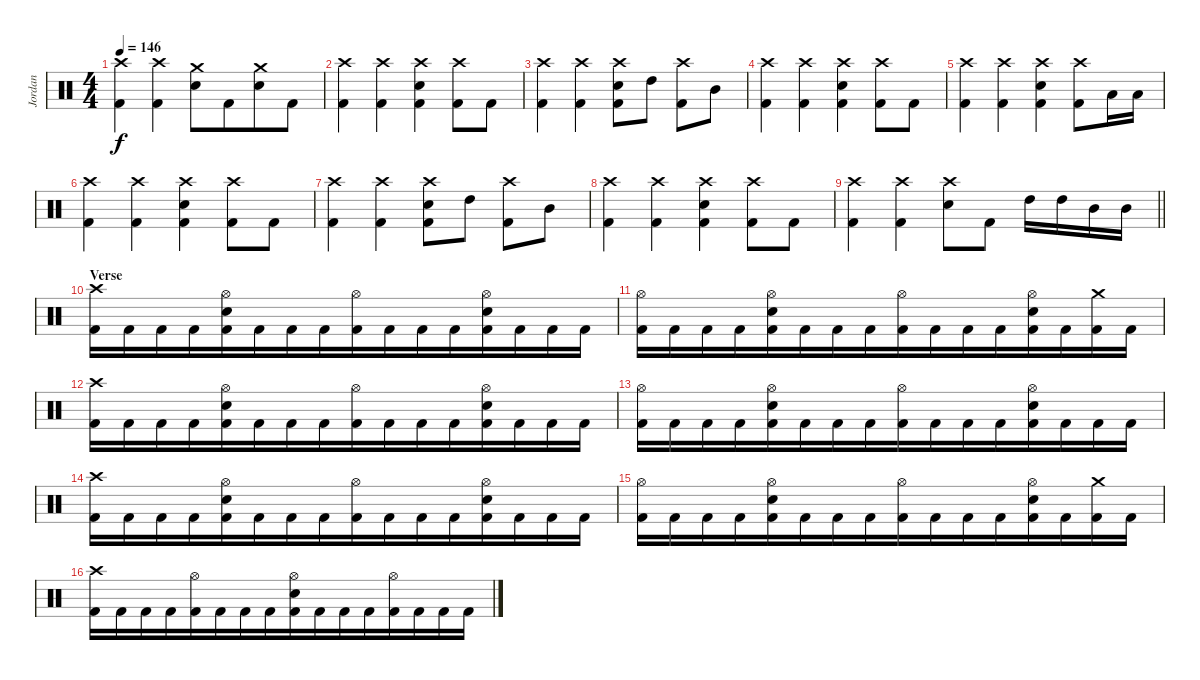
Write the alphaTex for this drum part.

\track ("Jordan" "Jordan") {instrument percussion}
\staff {score}
\articulation defaults
\ts (4 4)
\tempo 146
\clef neutral
\ks c
("Crash high (hit)" "Kick (hit) 2").4{dy f} ("Crash high (hit)" "Kick (hit) 2").4{beam merge} ("Crash medium (hit)" "Snare (hit) 2").8{beam merge} "Kick (hit) 2".8{beam merge} ("Crash medium (hit)" "Snare (hit) 2").8{beam merge} "Kick (hit) 2".8 |
("Crash high (hit)" "Kick (hit) 2").4 ("Crash high (hit)" "Kick (hit) 2").4{beam merge} ("Crash high (hit)" "Snare (hit) 2" "Kick (hit) 2").4 ("Crash high (hit)" "Kick (hit) 2").8{beam merge} "Kick (hit) 2".8 |
("Crash high (hit)" "Kick (hit) 2").4 ("Crash high (hit)" "Kick (hit) 2").4{beam merge} ("Crash high (hit)" "Snare (hit) 2" "Kick (hit) 2").8 "High Tom (hit)".8 ("Crash high (hit)" "Kick (hit) 2").8{beam merge} "Mid Tom (hit)".8 |
("Crash high (hit)" "Kick (hit) 2").4 ("Crash high (hit)" "Kick (hit) 2").4{beam merge} ("Crash high (hit)" "Snare (hit) 2" "Kick (hit) 2").4 ("Crash high (hit)" "Kick (hit) 2").8{beam merge} "Kick (hit) 2".8 |
("Crash high (hit)" "Kick (hit) 2").4 ("Crash high (hit)" "Kick (hit) 2").4{beam merge} ("Crash high (hit)" "Snare (hit) 2" "Kick (hit) 2").4 ("Crash high (hit)" "Kick (hit) 2").8 "Low Tom (hit)".16 "Low Tom (hit)".16 |
("Crash high (hit)" "Kick (hit) 2").4 ("Crash high (hit)" "Kick (hit) 2").4{beam merge} ("Crash high (hit)" "Snare (hit) 2" "Kick (hit) 2").4 ("Crash high (hit)" "Kick (hit) 2").8{beam merge} "Kick (hit) 2".8 |
("Crash high (hit)" "Kick (hit) 2").4 ("Crash high (hit)" "Kick (hit) 2").4{beam merge} ("Crash high (hit)" "Snare (hit) 2" "Kick (hit) 2").8 "High Tom (hit)".8 ("Crash high (hit)" "Kick (hit) 2").8{beam merge} "Mid Tom (hit)".8 |
("Crash high (hit)" "Kick (hit) 2").4 ("Crash high (hit)" "Kick (hit) 2").4{beam merge} ("Crash high (hit)" "Snare (hit) 2" "Kick (hit) 2").4 ("Crash high (hit)" "Kick (hit) 2").8{beam merge} "Kick (hit) 2".8 |
\barLineRight lightlight
("Crash high (hit)" "Kick (hit) 2").4 ("Crash high (hit)" "Kick (hit) 2").4{beam merge} ("Crash high (hit)" "Snare (hit) 2").8{beam merge} "Kick (hit) 2".8 "High Tom (hit)".16 "High Tom (hit)".16 "Mid Tom (hit)".16 "Mid Tom (hit)".16 |
\section ("" "Verse")
("Crash high (hit)" "Kick (hit) 2").16{beam merge} "Kick (hit) 2".16 "Kick (hit) 2".16 "Kick (hit) 2".16{beam merge} ("Hi-Hat (open)" "Snare (hit) 2" "Kick (hit) 2").16{beam merge} "Kick (hit) 2".16 "Kick (hit) 2".16 "Kick (hit) 2".16{beam merge} ("Hi-Hat (open)" "Kick (hit) 2").16{beam merge} "Kick (hit) 2".16 "Kick (hit) 2".16 "Kick (hit) 2".16{beam merge} ("Hi-Hat (open)" "Snare (hit) 2" "Kick (hit) 2").16{beam merge} "Kick (hit) 2".16 "Kick (hit) 2".16 "Kick (hit) 2".16 |
("Hi-Hat (open)" "Kick (hit) 2").16{beam merge} "Kick (hit) 2".16 "Kick (hit) 2".16 "Kick (hit) 2".16{beam merge} ("Hi-Hat (open)" "Snare (hit) 2" "Kick (hit) 2").16{beam merge} "Kick (hit) 2".16 "Kick (hit) 2".16 "Kick (hit) 2".16{beam merge} ("Hi-Hat (open)" "Kick (hit) 2").16{beam merge} "Kick (hit) 2".16 "Kick (hit) 2".16 "Kick (hit) 2".16{beam merge} ("Hi-Hat (open)" "Snare (hit) 2" "Kick (hit) 2").16{beam merge} "Kick (hit) 2".16 ("Crash medium (hit)" "Kick (hit) 2").16 "Kick (hit) 2".16 |
("Crash high (hit)" "Kick (hit) 2").16{beam merge} "Kick (hit) 2".16 "Kick (hit) 2".16 "Kick (hit) 2".16{beam merge} ("Hi-Hat (open)" "Snare (hit) 2" "Kick (hit) 2").16{beam merge} "Kick (hit) 2".16 "Kick (hit) 2".16 "Kick (hit) 2".16{beam merge} ("Hi-Hat (open)" "Kick (hit) 2").16{beam merge} "Kick (hit) 2".16 "Kick (hit) 2".16 "Kick (hit) 2".16{beam merge} ("Hi-Hat (open)" "Snare (hit) 2" "Kick (hit) 2").16{beam merge} "Kick (hit) 2".16 "Kick (hit) 2".16 "Kick (hit) 2".16 |
("Hi-Hat (open)" "Kick (hit) 2").16{beam merge} "Kick (hit) 2".16 "Kick (hit) 2".16 "Kick (hit) 2".16{beam merge} ("Hi-Hat (open)" "Snare (hit) 2" "Kick (hit) 2").16{beam merge} "Kick (hit) 2".16 "Kick (hit) 2".16 "Kick (hit) 2".16{beam merge} ("Hi-Hat (open)" "Kick (hit) 2").16{beam merge} "Kick (hit) 2".16 "Kick (hit) 2".16 "Kick (hit) 2".16{beam merge} ("Hi-Hat (open)" "Snare (hit) 2" "Kick (hit) 2").16{beam merge} "Kick (hit) 2".16 "Kick (hit) 2".16 "Kick (hit) 2".16 |
("Crash high (hit)" "Kick (hit) 2").16{beam merge} "Kick (hit) 2".16 "Kick (hit) 2".16 "Kick (hit) 2".16{beam merge} ("Hi-Hat (open)" "Snare (hit) 2" "Kick (hit) 2").16{beam merge} "Kick (hit) 2".16 "Kick (hit) 2".16 "Kick (hit) 2".16{beam merge} ("Hi-Hat (open)" "Kick (hit) 2").16{beam merge} "Kick (hit) 2".16 "Kick (hit) 2".16 "Kick (hit) 2".16{beam merge} ("Hi-Hat (open)" "Snare (hit) 2" "Kick (hit) 2").16{beam merge} "Kick (hit) 2".16 "Kick (hit) 2".16 "Kick (hit) 2".16 |
("Hi-Hat (open)" "Kick (hit) 2").16{beam merge} "Kick (hit) 2".16 "Kick (hit) 2".16 "Kick (hit) 2".16{beam merge} ("Hi-Hat (open)" "Snare (hit) 2" "Kick (hit) 2").16{beam merge} "Kick (hit) 2".16 "Kick (hit) 2".16 "Kick (hit) 2".16{beam merge} ("Hi-Hat (open)" "Kick (hit) 2").16{beam merge} "Kick (hit) 2".16 "Kick (hit) 2".16 "Kick (hit) 2".16{beam merge} ("Hi-Hat (open)" "Snare (hit) 2" "Kick (hit) 2").16{beam merge} "Kick (hit) 2".16 ("Crash medium (hit)" "Kick (hit) 2").16 "Kick (hit) 2".16 |
("Crash high (hit)" "Kick (hit) 2").16{beam merge} "Kick (hit) 2".16 "Kick (hit) 2".16 "Kick (hit) 2".16{beam merge} ("Hi-Hat (open)" "Kick (hit) 2").16{beam merge} "Kick (hit) 2".16 "Kick (hit) 2".16 "Kick (hit) 2".16{beam merge} ("Hi-Hat (open)" "Snare (hit) 2" "Kick (hit) 2").16{beam merge} "Kick (hit) 2".16 "Kick (hit) 2".16 "Kick (hit) 2".16{beam merge} ("Hi-Hat (open)" "Kick (hit) 2").16{beam merge} "Kick (hit) 2".16 "Kick (hit) 2".16 "Kick (hit) 2".16
